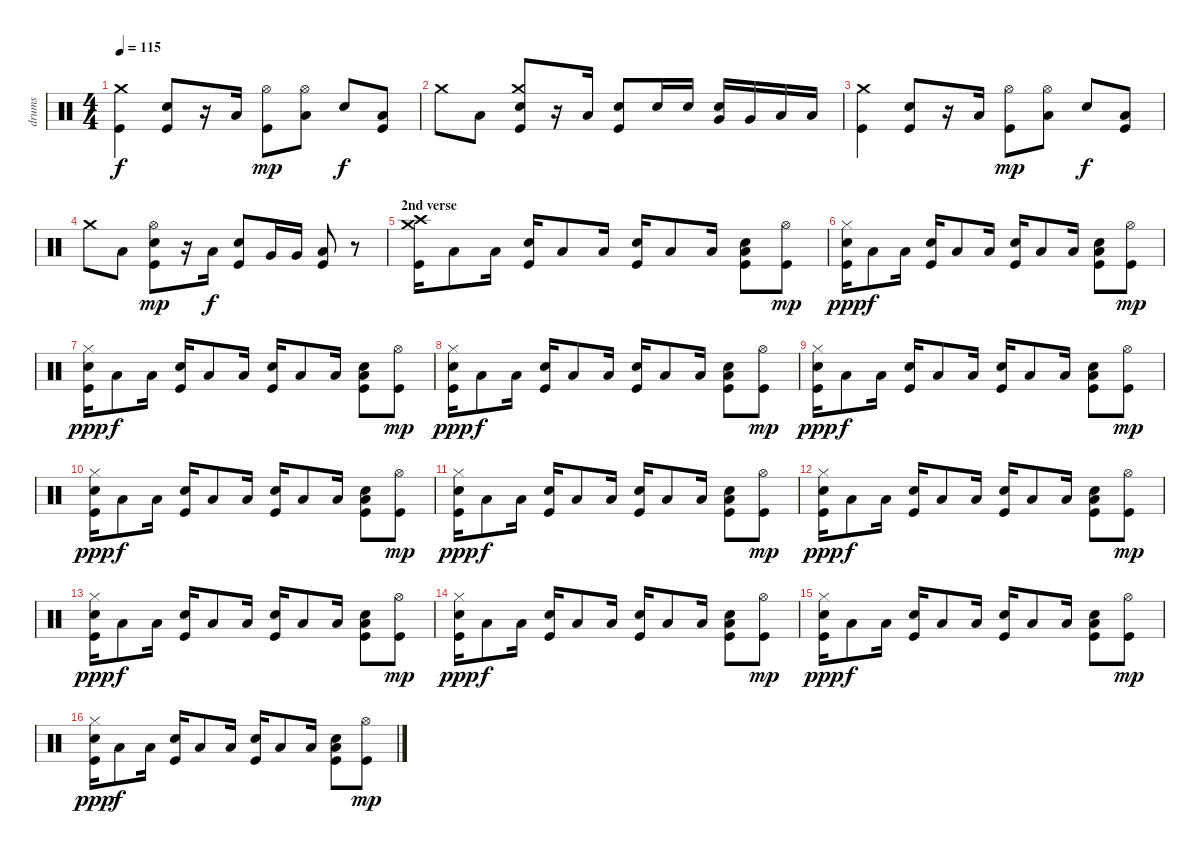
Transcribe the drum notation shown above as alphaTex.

\track ("drums" "drums") {instrument percussion}
\staff {score}
\articulation defaults
\ts (4 4)
\tempo 115
\clef neutral
\ks c
("Kick (hit)" "Crash medium (hit)").4{dy f} ("Kick (hit)" "Electric Snare (hit)").8 r.16 "Low Floor Tom (hit)".16 ("Kick (hit)" "Hi-Hat (open)").8{dy mp} ("Low Floor Tom (hit)" "Hi-Hat (open)").8 "Electric Snare (hit)".8{dy f} ("Kick (hit)" "Low Floor Tom (hit)").8 |
"Crash medium (hit)".8 "Low Floor Tom (hit)".8 ("Kick (hit)" "Electric Snare (hit)" "Crash medium (hit)").8 r.16 "Low Floor Tom (hit)".16 ("Kick (hit)" "Electric Snare (hit)").8 "Electric Snare (hit)".16 "Electric Snare (hit)".16 ("Electric Snare (hit)" "Very Low Tom (hit)").16 "Very Low Tom (hit)".16 "Low Floor Tom (hit)".16 "Low Floor Tom (hit)".16 |
("Kick (hit)" "Crash medium (hit)").4 ("Kick (hit)" "Electric Snare (hit)").8 r.16 "Low Floor Tom (hit)".16 ("Kick (hit)" "Hi-Hat (open)").8{dy mp} ("Low Floor Tom (hit)" "Hi-Hat (open)").8 "Electric Snare (hit)".8{dy f} ("Kick (hit)" "Low Floor Tom (hit)").8 |
"Crash medium (hit)".8 "Low Floor Tom (hit)".8 ("Kick (hit)" "Electric Snare (hit)" "Hi-Hat (open)").8{dy mp} r.16 "Low Floor Tom (hit)".16{dy f} ("Kick (hit)" "Electric Snare (hit)").8 "Very Low Tom (hit)".16 "Very Low Tom (hit)".16 ("Kick (hit)" "Low Floor Tom (hit)").8 r.8 |
\section ("" "2nd verse")
("Kick (hit)" "Crash medium (hit)" "Crash high (hit)").16 "Low Floor Tom (hit)".8 "Low Floor Tom (hit)".16 ("Kick (hit)" "Electric Snare (hit)").16 "Low Floor Tom (hit)".8 "Low Floor Tom (hit)".16 ("Kick (hit)" "Electric Snare (hit)").16 "Low Floor Tom (hit)".8 "Low Floor Tom (hit)".16 ("Kick (hit)" "Low Floor Tom (hit)" "Electric Snare (hit)").8 ("Kick (hit)" "Hi-Hat (open)").8{dy mp} |
("Kick (hit)" "Electric Snare (hit)" "Hi-Hat (closed)").16{dy ppp} "Low Floor Tom (hit)".8{dy f} "Low Floor Tom (hit)".16 ("Kick (hit)" "Electric Snare (hit)").16 "Low Floor Tom (hit)".8 "Low Floor Tom (hit)".16 ("Kick (hit)" "Electric Snare (hit)").16 "Low Floor Tom (hit)".8 "Low Floor Tom (hit)".16 ("Kick (hit)" "Low Floor Tom (hit)" "Electric Snare (hit)").8 ("Kick (hit)" "Hi-Hat (open)").8{dy mp} |
("Kick (hit)" "Electric Snare (hit)" "Hi-Hat (closed)").16{dy ppp} "Low Floor Tom (hit)".8{dy f} "Low Floor Tom (hit)".16 ("Kick (hit)" "Electric Snare (hit)").16 "Low Floor Tom (hit)".8 "Low Floor Tom (hit)".16 ("Kick (hit)" "Electric Snare (hit)").16 "Low Floor Tom (hit)".8 "Low Floor Tom (hit)".16 ("Kick (hit)" "Low Floor Tom (hit)" "Electric Snare (hit)").8 ("Kick (hit)" "Hi-Hat (open)").8{dy mp} |
("Kick (hit)" "Electric Snare (hit)" "Hi-Hat (closed)").16{dy ppp} "Low Floor Tom (hit)".8{dy f} "Low Floor Tom (hit)".16 ("Kick (hit)" "Electric Snare (hit)").16 "Low Floor Tom (hit)".8 "Low Floor Tom (hit)".16 ("Kick (hit)" "Electric Snare (hit)").16 "Low Floor Tom (hit)".8 "Low Floor Tom (hit)".16 ("Kick (hit)" "Low Floor Tom (hit)" "Electric Snare (hit)").8 ("Kick (hit)" "Hi-Hat (open)").8{dy mp} |
("Kick (hit)" "Electric Snare (hit)" "Hi-Hat (closed)").16{dy ppp} "Low Floor Tom (hit)".8{dy f} "Low Floor Tom (hit)".16 ("Kick (hit)" "Electric Snare (hit)").16 "Low Floor Tom (hit)".8 "Low Floor Tom (hit)".16 ("Kick (hit)" "Electric Snare (hit)").16 "Low Floor Tom (hit)".8 "Low Floor Tom (hit)".16 ("Kick (hit)" "Low Floor Tom (hit)" "Electric Snare (hit)").8 ("Kick (hit)" "Hi-Hat (open)").8{dy mp} |
("Kick (hit)" "Electric Snare (hit)" "Hi-Hat (closed)").16{dy ppp} "Low Floor Tom (hit)".8{dy f} "Low Floor Tom (hit)".16 ("Kick (hit)" "Electric Snare (hit)").16 "Low Floor Tom (hit)".8 "Low Floor Tom (hit)".16 ("Kick (hit)" "Electric Snare (hit)").16 "Low Floor Tom (hit)".8 "Low Floor Tom (hit)".16 ("Kick (hit)" "Low Floor Tom (hit)" "Electric Snare (hit)").8 ("Kick (hit)" "Hi-Hat (open)").8{dy mp} |
("Kick (hit)" "Electric Snare (hit)" "Hi-Hat (closed)").16{dy ppp} "Low Floor Tom (hit)".8{dy f} "Low Floor Tom (hit)".16 ("Kick (hit)" "Electric Snare (hit)").16 "Low Floor Tom (hit)".8 "Low Floor Tom (hit)".16 ("Kick (hit)" "Electric Snare (hit)").16 "Low Floor Tom (hit)".8 "Low Floor Tom (hit)".16 ("Kick (hit)" "Low Floor Tom (hit)" "Electric Snare (hit)").8 ("Kick (hit)" "Hi-Hat (open)").8{dy mp} |
("Kick (hit)" "Electric Snare (hit)" "Hi-Hat (closed)").16{dy ppp} "Low Floor Tom (hit)".8{dy f} "Low Floor Tom (hit)".16 ("Kick (hit)" "Electric Snare (hit)").16 "Low Floor Tom (hit)".8 "Low Floor Tom (hit)".16 ("Kick (hit)" "Electric Snare (hit)").16 "Low Floor Tom (hit)".8 "Low Floor Tom (hit)".16 ("Kick (hit)" "Low Floor Tom (hit)" "Electric Snare (hit)").8 ("Kick (hit)" "Hi-Hat (open)").8{dy mp} |
("Kick (hit)" "Electric Snare (hit)" "Hi-Hat (closed)").16{dy ppp} "Low Floor Tom (hit)".8{dy f} "Low Floor Tom (hit)".16 ("Kick (hit)" "Electric Snare (hit)").16 "Low Floor Tom (hit)".8 "Low Floor Tom (hit)".16 ("Kick (hit)" "Electric Snare (hit)").16 "Low Floor Tom (hit)".8 "Low Floor Tom (hit)".16 ("Kick (hit)" "Low Floor Tom (hit)" "Electric Snare (hit)").8 ("Kick (hit)" "Hi-Hat (open)").8{dy mp} |
("Kick (hit)" "Electric Snare (hit)" "Hi-Hat (closed)").16{dy ppp} "Low Floor Tom (hit)".8{dy f} "Low Floor Tom (hit)".16 ("Kick (hit)" "Electric Snare (hit)").16 "Low Floor Tom (hit)".8 "Low Floor Tom (hit)".16 ("Kick (hit)" "Electric Snare (hit)").16 "Low Floor Tom (hit)".8 "Low Floor Tom (hit)".16 ("Kick (hit)" "Low Floor Tom (hit)" "Electric Snare (hit)").8 ("Kick (hit)" "Hi-Hat (open)").8{dy mp} |
("Kick (hit)" "Electric Snare (hit)" "Hi-Hat (closed)").16{dy ppp} "Low Floor Tom (hit)".8{dy f} "Low Floor Tom (hit)".16 ("Kick (hit)" "Electric Snare (hit)").16 "Low Floor Tom (hit)".8 "Low Floor Tom (hit)".16 ("Kick (hit)" "Electric Snare (hit)").16 "Low Floor Tom (hit)".8 "Low Floor Tom (hit)".16 ("Kick (hit)" "Low Floor Tom (hit)" "Electric Snare (hit)").8 ("Kick (hit)" "Hi-Hat (open)").8{dy mp} |
("Kick (hit)" "Electric Snare (hit)" "Hi-Hat (closed)").16{dy ppp} "Low Floor Tom (hit)".8{dy f} "Low Floor Tom (hit)".16 ("Kick (hit)" "Electric Snare (hit)").16 "Low Floor Tom (hit)".8 "Low Floor Tom (hit)".16 ("Kick (hit)" "Electric Snare (hit)").16 "Low Floor Tom (hit)".8 "Low Floor Tom (hit)".16 ("Kick (hit)" "Low Floor Tom (hit)" "Electric Snare (hit)").8 ("Kick (hit)" "Hi-Hat (open)").8{dy mp}
